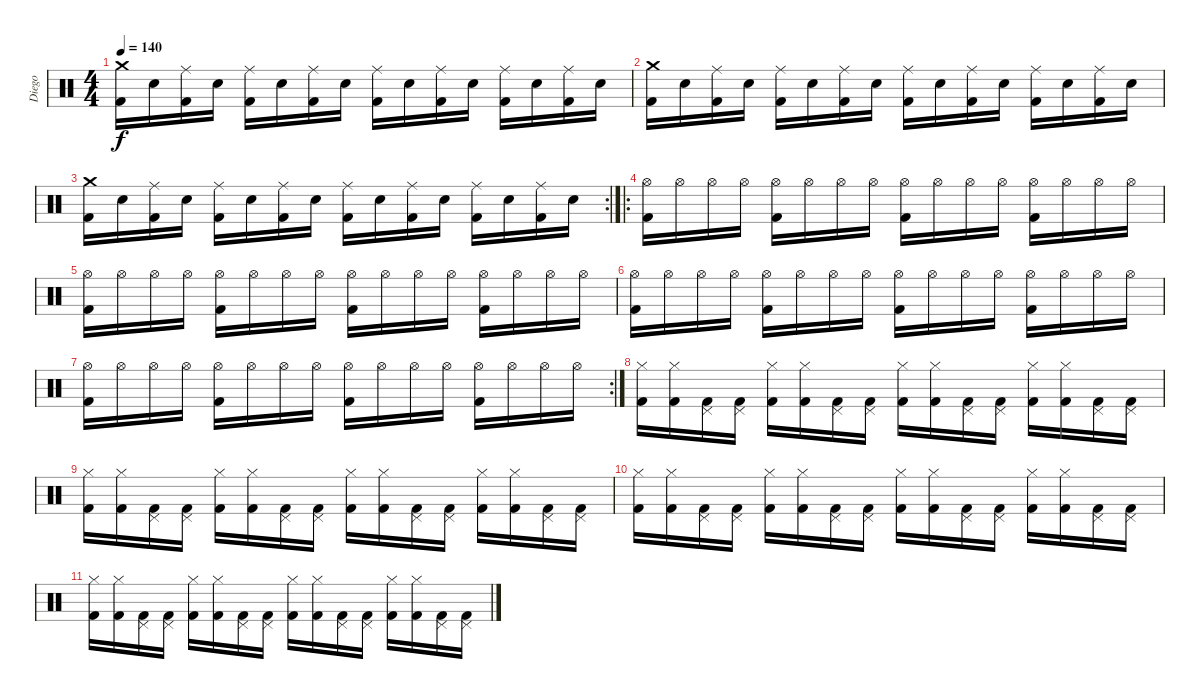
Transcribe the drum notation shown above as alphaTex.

\track ("Diego" "Diego") {instrument percussion}
\staff {score}
\articulation defaults
\ts (4 4)
\tempo 140
\clef neutral
\ks c
("Kick (hit) 2" "Crash medium (hit)").16{dy f} "Electric Snare (hit)".16 ("Kick (hit) 2" "Ride (middle)").16 "Electric Snare (hit)".16 ("Kick (hit) 2" "Ride (middle)").16 "Electric Snare (hit)".16 ("Kick (hit) 2" "Ride (middle)").16 "Electric Snare (hit)".16 ("Kick (hit) 2" "Ride (middle)").16 "Electric Snare (hit)".16 ("Kick (hit) 2" "Ride (middle)").16 "Electric Snare (hit)".16 ("Kick (hit) 2" "Ride (middle)").16 "Electric Snare (hit)".16 ("Kick (hit) 2" "Ride (middle)").16 "Electric Snare (hit)".16 |
("Kick (hit) 2" "Crash medium (hit)").16 "Electric Snare (hit)".16 ("Kick (hit) 2" "Ride (middle)").16 "Electric Snare (hit)".16 ("Kick (hit) 2" "Ride (middle)").16 "Electric Snare (hit)".16 ("Kick (hit) 2" "Ride (middle)").16 "Electric Snare (hit)".16 ("Kick (hit) 2" "Ride (middle)").16 "Electric Snare (hit)".16 ("Kick (hit) 2" "Ride (middle)").16 "Electric Snare (hit)".16 ("Kick (hit) 2" "Ride (middle)").16 "Electric Snare (hit)".16 ("Kick (hit) 2" "Ride (middle)").16 "Electric Snare (hit)".16 |
\rc 2
("Kick (hit) 2" "Crash medium (hit)").16 "Electric Snare (hit)".16 ("Kick (hit) 2" "Ride (middle)").16 "Electric Snare (hit)".16 ("Kick (hit) 2" "Ride (middle)").16 "Electric Snare (hit)".16 ("Kick (hit) 2" "Ride (middle)").16 "Electric Snare (hit)".16 ("Kick (hit) 2" "Ride (middle)").16 "Electric Snare (hit)".16 ("Kick (hit) 2" "Ride (middle)").16 "Electric Snare (hit)".16 ("Kick (hit) 2" "Ride (middle)").16 "Electric Snare (hit)".16 ("Kick (hit) 2" "Ride (middle)").16 "Electric Snare (hit)".16 |
\ro
("Hi-Hat (open)" "Kick (hit) 2").16 "Hi-Hat (open)".16 "Hi-Hat (open)".16 "Hi-Hat (open)".16 ("Hi-Hat (open)" "Kick (hit) 2").16 "Hi-Hat (open)".16 "Hi-Hat (open)".16 "Hi-Hat (open)".16 ("Hi-Hat (open)" "Kick (hit) 2").16 "Hi-Hat (open)".16 "Hi-Hat (open)".16 "Hi-Hat (open)".16 ("Hi-Hat (open)" "Kick (hit) 2").16 "Hi-Hat (open)".16 "Hi-Hat (open)".16 "Hi-Hat (open)".16 |
("Hi-Hat (open)" "Kick (hit) 2").16 "Hi-Hat (open)".16 "Hi-Hat (open)".16 "Hi-Hat (open)".16 ("Hi-Hat (open)" "Kick (hit) 2").16 "Hi-Hat (open)".16 "Hi-Hat (open)".16 "Hi-Hat (open)".16 ("Hi-Hat (open)" "Kick (hit) 2").16 "Hi-Hat (open)".16 "Hi-Hat (open)".16 "Hi-Hat (open)".16 ("Hi-Hat (open)" "Kick (hit) 2").16 "Hi-Hat (open)".16 "Hi-Hat (open)".16 "Hi-Hat (open)".16 |
("Hi-Hat (open)" "Kick (hit) 2").16 "Hi-Hat (open)".16 "Hi-Hat (open)".16 "Hi-Hat (open)".16 ("Hi-Hat (open)" "Kick (hit) 2").16 "Hi-Hat (open)".16 "Hi-Hat (open)".16 "Hi-Hat (open)".16 ("Hi-Hat (open)" "Kick (hit) 2").16 "Hi-Hat (open)".16 "Hi-Hat (open)".16 "Hi-Hat (open)".16 ("Hi-Hat (open)" "Kick (hit) 2").16 "Hi-Hat (open)".16 "Hi-Hat (open)".16 "Hi-Hat (open)".16 |
\rc 2
("Hi-Hat (open)" "Kick (hit) 2").16 "Hi-Hat (open)".16 "Hi-Hat (open)".16 "Hi-Hat (open)".16 ("Hi-Hat (open)" "Kick (hit) 2").16 "Hi-Hat (open)".16 "Hi-Hat (open)".16 "Hi-Hat (open)".16 ("Hi-Hat (open)" "Kick (hit) 2").16 "Hi-Hat (open)".16 "Hi-Hat (open)".16 "Hi-Hat (open)".16 ("Hi-Hat (open)" "Kick (hit) 2").16 "Hi-Hat (open)".16 "Hi-Hat (open)".16 "Hi-Hat (open)".16 |
("Hi-Hat (closed)" "Kick (hit) 2").16 ("Hi-Hat (closed)" "Kick (hit) 2").16 ("Pedal Hi-Hat (hit)" "Kick (hit) 2").16 ("Pedal Hi-Hat (hit)" "Kick (hit) 2").16 ("Hi-Hat (closed)" "Kick (hit) 2").16 ("Hi-Hat (closed)" "Kick (hit) 2").16 ("Pedal Hi-Hat (hit)" "Kick (hit) 2").16 ("Pedal Hi-Hat (hit)" "Kick (hit) 2").16 ("Hi-Hat (closed)" "Kick (hit) 2").16 ("Hi-Hat (closed)" "Kick (hit) 2").16 ("Pedal Hi-Hat (hit)" "Kick (hit) 2").16 ("Pedal Hi-Hat (hit)" "Kick (hit) 2").16 ("Hi-Hat (closed)" "Kick (hit) 2").16 ("Hi-Hat (closed)" "Kick (hit) 2").16 ("Pedal Hi-Hat (hit)" "Kick (hit) 2").16 ("Pedal Hi-Hat (hit)" "Kick (hit) 2").16 |
("Hi-Hat (closed)" "Kick (hit) 2").16 ("Hi-Hat (closed)" "Kick (hit) 2").16 ("Pedal Hi-Hat (hit)" "Kick (hit) 2").16 ("Pedal Hi-Hat (hit)" "Kick (hit) 2").16 ("Hi-Hat (closed)" "Kick (hit) 2").16 ("Hi-Hat (closed)" "Kick (hit) 2").16 ("Pedal Hi-Hat (hit)" "Kick (hit) 2").16 ("Pedal Hi-Hat (hit)" "Kick (hit) 2").16 ("Hi-Hat (closed)" "Kick (hit) 2").16 ("Hi-Hat (closed)" "Kick (hit) 2").16 ("Pedal Hi-Hat (hit)" "Kick (hit) 2").16 ("Pedal Hi-Hat (hit)" "Kick (hit) 2").16 ("Hi-Hat (closed)" "Kick (hit) 2").16 ("Hi-Hat (closed)" "Kick (hit) 2").16 ("Pedal Hi-Hat (hit)" "Kick (hit) 2").16 ("Pedal Hi-Hat (hit)" "Kick (hit) 2").16 |
("Hi-Hat (closed)" "Kick (hit) 2").16 ("Hi-Hat (closed)" "Kick (hit) 2").16 ("Pedal Hi-Hat (hit)" "Kick (hit) 2").16 ("Pedal Hi-Hat (hit)" "Kick (hit) 2").16 ("Hi-Hat (closed)" "Kick (hit) 2").16 ("Hi-Hat (closed)" "Kick (hit) 2").16 ("Pedal Hi-Hat (hit)" "Kick (hit) 2").16 ("Pedal Hi-Hat (hit)" "Kick (hit) 2").16 ("Hi-Hat (closed)" "Kick (hit) 2").16 ("Hi-Hat (closed)" "Kick (hit) 2").16 ("Pedal Hi-Hat (hit)" "Kick (hit) 2").16 ("Pedal Hi-Hat (hit)" "Kick (hit) 2").16 ("Hi-Hat (closed)" "Kick (hit) 2").16 ("Hi-Hat (closed)" "Kick (hit) 2").16 ("Pedal Hi-Hat (hit)" "Kick (hit) 2").16 ("Pedal Hi-Hat (hit)" "Kick (hit) 2").16 |
("Hi-Hat (closed)" "Kick (hit) 2").16 ("Hi-Hat (closed)" "Kick (hit) 2").16 ("Pedal Hi-Hat (hit)" "Kick (hit) 2").16 ("Pedal Hi-Hat (hit)" "Kick (hit) 2").16 ("Hi-Hat (closed)" "Kick (hit) 2").16 ("Hi-Hat (closed)" "Kick (hit) 2").16 ("Pedal Hi-Hat (hit)" "Kick (hit) 2").16 ("Pedal Hi-Hat (hit)" "Kick (hit) 2").16 ("Hi-Hat (closed)" "Kick (hit) 2").16 ("Hi-Hat (closed)" "Kick (hit) 2").16 ("Pedal Hi-Hat (hit)" "Kick (hit) 2").16 ("Pedal Hi-Hat (hit)" "Kick (hit) 2").16 ("Hi-Hat (closed)" "Kick (hit) 2").16 ("Hi-Hat (closed)" "Kick (hit) 2").16 ("Pedal Hi-Hat (hit)" "Kick (hit) 2").16 ("Pedal Hi-Hat (hit)" "Kick (hit) 2").16
